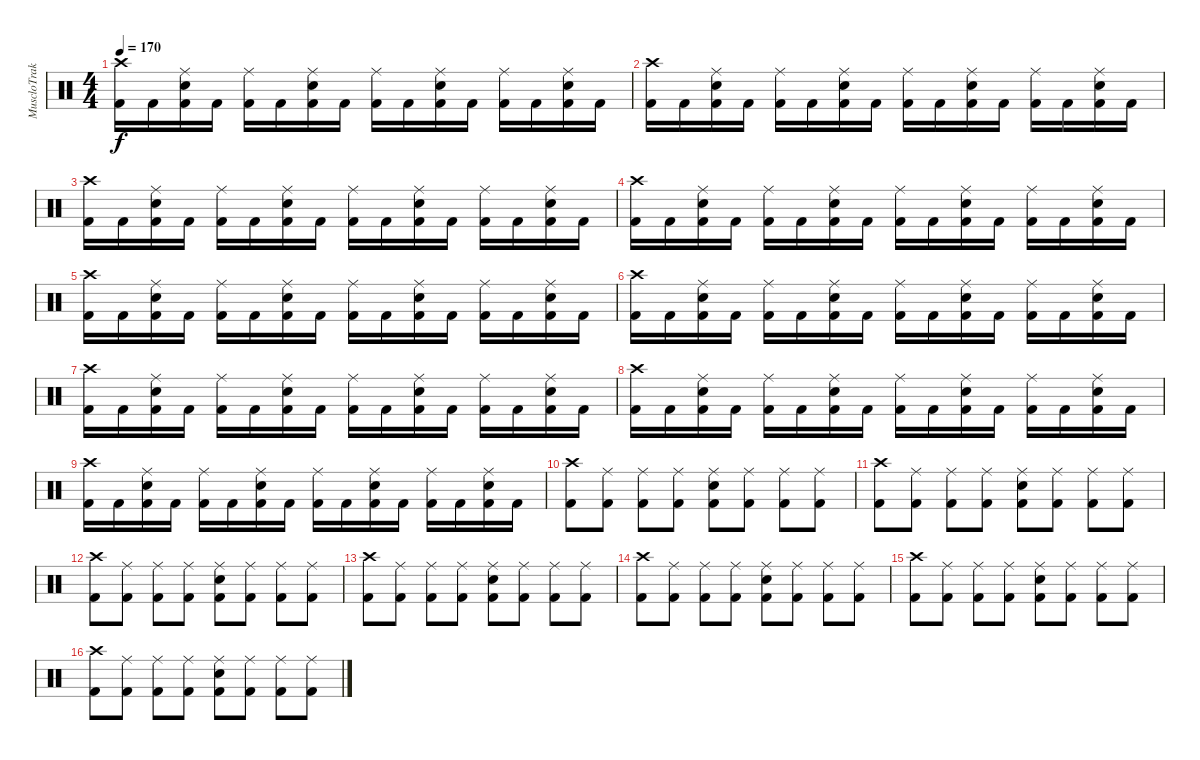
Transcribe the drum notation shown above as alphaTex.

\track ("MuscloTraktor" "MuscloTrak") {instrument percussion}
\staff {score}
\articulation defaults
\ts (4 4)
\tempo 170
\clef neutral
\ks c
("Kick (hit) 2" "Crash high (hit)").16{dy f} "Kick (hit) 2".16 ("Kick (hit) 2" "Electric Snare (hit)" "Ride (middle)").16 "Kick (hit) 2".16 ("Kick (hit) 2" "Ride (middle)").16 "Kick (hit) 2".16 ("Kick (hit) 2" "Electric Snare (hit)" "Ride (middle)").16 "Kick (hit) 2".16 ("Kick (hit) 2" "Ride (middle)").16 "Kick (hit) 2".16 ("Kick (hit) 2" "Electric Snare (hit)" "Ride (middle)").16 "Kick (hit) 2".16 ("Kick (hit) 2" "Ride (middle)").16 "Kick (hit) 2".16 ("Kick (hit) 2" "Electric Snare (hit)" "Ride (middle)").16 "Kick (hit) 2".16 |
("Kick (hit) 2" "Crash high (hit)").16 "Kick (hit) 2".16 ("Kick (hit) 2" "Electric Snare (hit)" "Ride (middle)").16 "Kick (hit) 2".16 ("Kick (hit) 2" "Ride (middle)").16 "Kick (hit) 2".16 ("Kick (hit) 2" "Electric Snare (hit)" "Ride (middle)").16 "Kick (hit) 2".16 ("Kick (hit) 2" "Ride (middle)").16 "Kick (hit) 2".16 ("Kick (hit) 2" "Electric Snare (hit)" "Ride (middle)").16 "Kick (hit) 2".16 ("Kick (hit) 2" "Ride (middle)").16 "Kick (hit) 2".16 ("Kick (hit) 2" "Electric Snare (hit)" "Ride (middle)").16 "Kick (hit) 2".16 |
("Kick (hit) 2" "Crash high (hit)").16 "Kick (hit) 2".16 ("Kick (hit) 2" "Electric Snare (hit)" "Ride (middle)").16 "Kick (hit) 2".16 ("Kick (hit) 2" "Ride (middle)").16 "Kick (hit) 2".16 ("Kick (hit) 2" "Electric Snare (hit)" "Ride (middle)").16 "Kick (hit) 2".16 ("Kick (hit) 2" "Ride (middle)").16 "Kick (hit) 2".16 ("Kick (hit) 2" "Electric Snare (hit)" "Ride (middle)").16 "Kick (hit) 2".16 ("Kick (hit) 2" "Ride (middle)").16 "Kick (hit) 2".16 ("Kick (hit) 2" "Electric Snare (hit)" "Ride (middle)").16 "Kick (hit) 2".16 |
("Kick (hit) 2" "Crash high (hit)").16 "Kick (hit) 2".16 ("Kick (hit) 2" "Electric Snare (hit)" "Ride (middle)").16 "Kick (hit) 2".16 ("Kick (hit) 2" "Ride (middle)").16 "Kick (hit) 2".16 ("Kick (hit) 2" "Electric Snare (hit)" "Ride (middle)").16 "Kick (hit) 2".16 ("Kick (hit) 2" "Ride (middle)").16 "Kick (hit) 2".16 ("Kick (hit) 2" "Electric Snare (hit)" "Ride (middle)").16 "Kick (hit) 2".16 ("Kick (hit) 2" "Ride (middle)").16 "Kick (hit) 2".16 ("Kick (hit) 2" "Electric Snare (hit)" "Ride (middle)").16 "Kick (hit) 2".16 |
("Kick (hit) 2" "Crash high (hit)").16 "Kick (hit) 2".16 ("Kick (hit) 2" "Electric Snare (hit)" "Ride (middle)").16 "Kick (hit) 2".16 ("Kick (hit) 2" "Ride (middle)").16 "Kick (hit) 2".16 ("Kick (hit) 2" "Electric Snare (hit)" "Ride (middle)").16 "Kick (hit) 2".16 ("Kick (hit) 2" "Ride (middle)").16 "Kick (hit) 2".16 ("Kick (hit) 2" "Electric Snare (hit)" "Ride (middle)").16 "Kick (hit) 2".16 ("Kick (hit) 2" "Ride (middle)").16 "Kick (hit) 2".16 ("Kick (hit) 2" "Electric Snare (hit)" "Ride (middle)").16 "Kick (hit) 2".16 |
("Kick (hit) 2" "Crash high (hit)").16 "Kick (hit) 2".16 ("Kick (hit) 2" "Electric Snare (hit)" "Ride (middle)").16 "Kick (hit) 2".16 ("Kick (hit) 2" "Ride (middle)").16 "Kick (hit) 2".16 ("Kick (hit) 2" "Electric Snare (hit)" "Ride (middle)").16 "Kick (hit) 2".16 ("Kick (hit) 2" "Ride (middle)").16 "Kick (hit) 2".16 ("Kick (hit) 2" "Electric Snare (hit)" "Ride (middle)").16 "Kick (hit) 2".16 ("Kick (hit) 2" "Ride (middle)").16 "Kick (hit) 2".16 ("Kick (hit) 2" "Electric Snare (hit)" "Ride (middle)").16 "Kick (hit) 2".16 |
("Kick (hit) 2" "Crash high (hit)").16 "Kick (hit) 2".16 ("Kick (hit) 2" "Electric Snare (hit)" "Ride (middle)").16 "Kick (hit) 2".16 ("Kick (hit) 2" "Ride (middle)").16 "Kick (hit) 2".16 ("Kick (hit) 2" "Electric Snare (hit)" "Ride (middle)").16 "Kick (hit) 2".16 ("Kick (hit) 2" "Ride (middle)").16 "Kick (hit) 2".16 ("Kick (hit) 2" "Electric Snare (hit)" "Ride (middle)").16 "Kick (hit) 2".16 ("Kick (hit) 2" "Ride (middle)").16 "Kick (hit) 2".16 ("Kick (hit) 2" "Electric Snare (hit)" "Ride (middle)").16 "Kick (hit) 2".16 |
("Kick (hit) 2" "Crash high (hit)").16 "Kick (hit) 2".16 ("Kick (hit) 2" "Electric Snare (hit)" "Ride (middle)").16 "Kick (hit) 2".16 ("Kick (hit) 2" "Ride (middle)").16 "Kick (hit) 2".16 ("Kick (hit) 2" "Electric Snare (hit)" "Ride (middle)").16 "Kick (hit) 2".16 ("Kick (hit) 2" "Ride (middle)").16 "Kick (hit) 2".16 ("Kick (hit) 2" "Electric Snare (hit)" "Ride (middle)").16 "Kick (hit) 2".16 ("Kick (hit) 2" "Ride (middle)").16 "Kick (hit) 2".16 ("Kick (hit) 2" "Electric Snare (hit)" "Ride (middle)").16 "Kick (hit) 2".16 |
("Kick (hit) 2" "Crash high (hit)").16 "Kick (hit) 2".16 ("Kick (hit) 2" "Electric Snare (hit)" "Ride (middle)").16 "Kick (hit) 2".16 ("Kick (hit) 2" "Ride (middle)").16 "Kick (hit) 2".16 ("Kick (hit) 2" "Electric Snare (hit)" "Ride (middle)").16 "Kick (hit) 2".16 ("Kick (hit) 2" "Ride (middle)").16 "Kick (hit) 2".16 ("Kick (hit) 2" "Electric Snare (hit)" "Ride (middle)").16 "Kick (hit) 2".16 ("Kick (hit) 2" "Ride (middle)").16 "Kick (hit) 2".16 ("Kick (hit) 2" "Electric Snare (hit)" "Ride (middle)").16 "Kick (hit) 2".16 |
("Kick (hit) 2" "Crash high (hit)").8 ("Kick (hit) 2" "Ride (middle)").8 ("Kick (hit) 2" "Ride (middle)").8 ("Kick (hit) 2" "Ride (middle)").8 ("Kick (hit) 2" "Electric Snare (hit)" "Ride (middle)").8 ("Kick (hit) 2" "Ride (middle)").8 ("Kick (hit) 2" "Ride (middle)").8 ("Kick (hit) 2" "Ride (middle)").8 |
("Kick (hit) 2" "Crash high (hit)").8 ("Kick (hit) 2" "Ride (middle)").8 ("Kick (hit) 2" "Ride (middle)").8 ("Kick (hit) 2" "Ride (middle)").8 ("Kick (hit) 2" "Electric Snare (hit)" "Ride (middle)").8 ("Kick (hit) 2" "Ride (middle)").8 ("Kick (hit) 2" "Ride (middle)").8 ("Kick (hit) 2" "Ride (middle)").8 |
("Kick (hit) 2" "Crash high (hit)").8 ("Kick (hit) 2" "Ride (middle)").8 ("Kick (hit) 2" "Ride (middle)").8 ("Kick (hit) 2" "Ride (middle)").8 ("Kick (hit) 2" "Electric Snare (hit)" "Ride (middle)").8 ("Kick (hit) 2" "Ride (middle)").8 ("Kick (hit) 2" "Ride (middle)").8 ("Kick (hit) 2" "Ride (middle)").8 |
("Kick (hit) 2" "Crash high (hit)").8 ("Kick (hit) 2" "Ride (middle)").8 ("Kick (hit) 2" "Ride (middle)").8 ("Kick (hit) 2" "Ride (middle)").8 ("Kick (hit) 2" "Electric Snare (hit)" "Ride (middle)").8 ("Kick (hit) 2" "Ride (middle)").8 ("Kick (hit) 2" "Ride (middle)").8 ("Kick (hit) 2" "Ride (middle)").8 |
("Kick (hit) 2" "Crash high (hit)").8 ("Kick (hit) 2" "Ride (middle)").8 ("Kick (hit) 2" "Ride (middle)").8 ("Kick (hit) 2" "Ride (middle)").8 ("Kick (hit) 2" "Electric Snare (hit)" "Ride (middle)").8 ("Kick (hit) 2" "Ride (middle)").8 ("Kick (hit) 2" "Ride (middle)").8 ("Kick (hit) 2" "Ride (middle)").8 |
("Kick (hit) 2" "Crash high (hit)").8 ("Kick (hit) 2" "Ride (middle)").8 ("Kick (hit) 2" "Ride (middle)").8 ("Kick (hit) 2" "Ride (middle)").8 ("Kick (hit) 2" "Electric Snare (hit)" "Ride (middle)").8 ("Kick (hit) 2" "Ride (middle)").8 ("Kick (hit) 2" "Ride (middle)").8 ("Kick (hit) 2" "Ride (middle)").8 |
("Kick (hit) 2" "Crash high (hit)").8 ("Kick (hit) 2" "Ride (middle)").8 ("Kick (hit) 2" "Ride (middle)").8 ("Kick (hit) 2" "Ride (middle)").8 ("Kick (hit) 2" "Electric Snare (hit)" "Ride (middle)").8 ("Kick (hit) 2" "Ride (middle)").8 ("Kick (hit) 2" "Ride (middle)").8 ("Kick (hit) 2" "Ride (middle)").8
